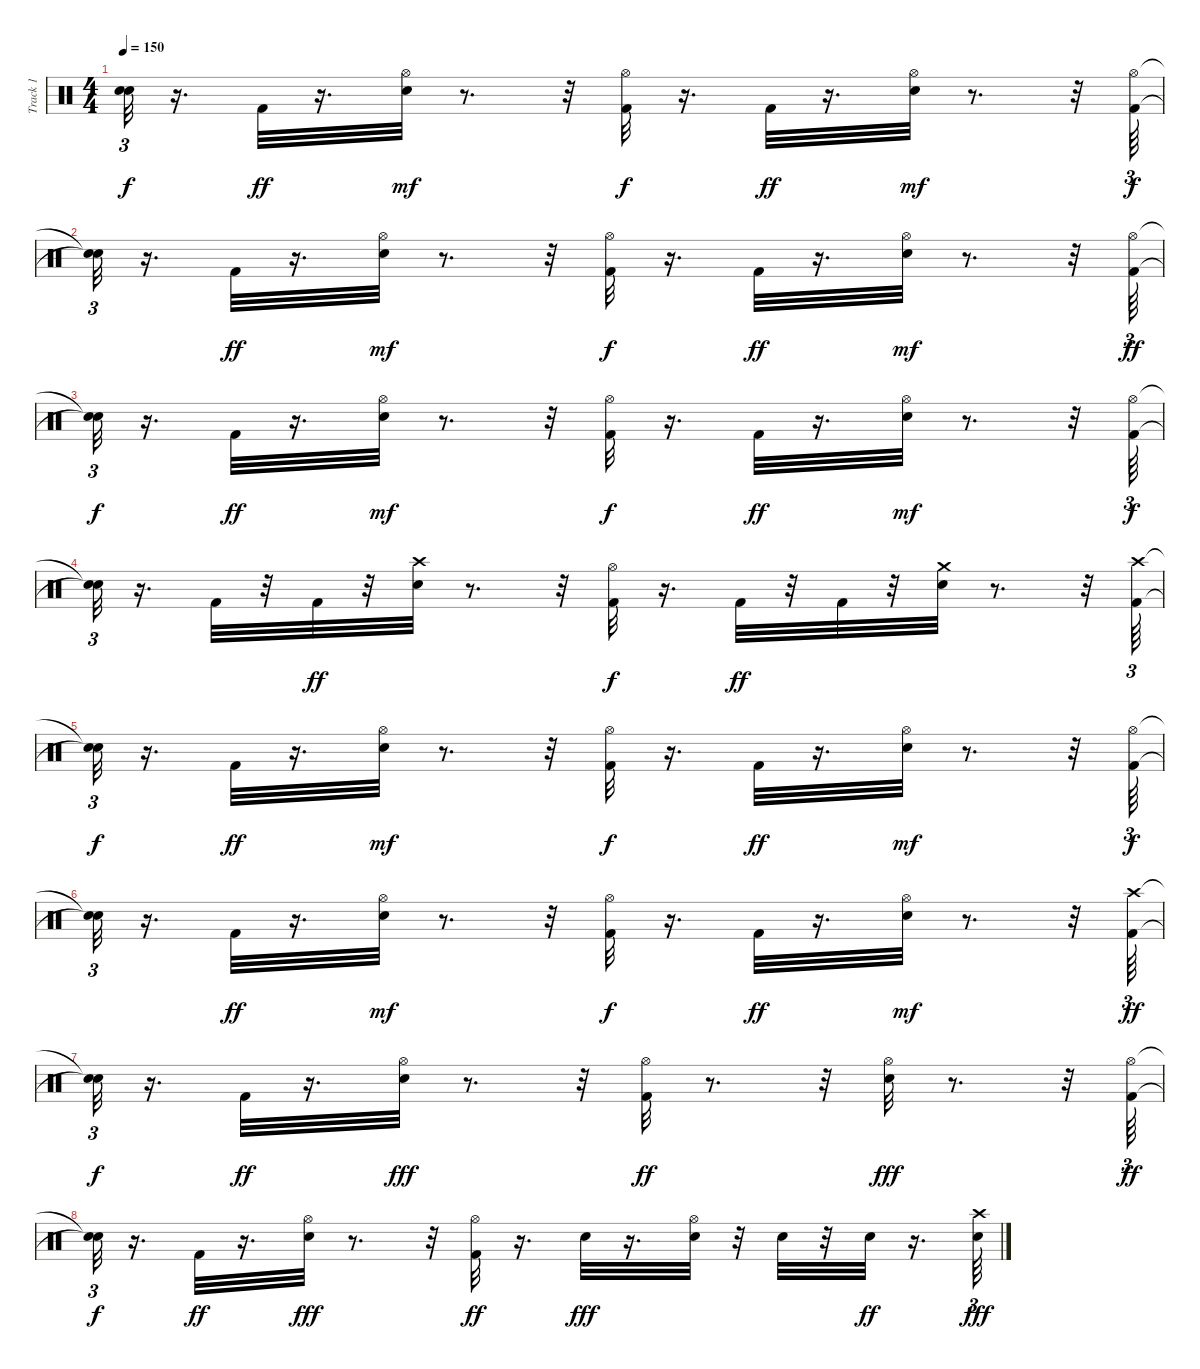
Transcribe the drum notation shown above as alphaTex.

\track ("Track 1" "Track 1") {instrument percussion}
\staff {score}
\articulation defaults
\ts (4 4)
\tempo 150
\clef neutral
\ks c
("Snare (hit)"{t} "Snare (hit)"{t}).32{tu (3 2) dy f} r.16{d} "Kick (hit) 2".32{dy ff} r.16{d} ("Electric Snare (hit)" "Hi-Hat (open)").32{dy mf} r.8{d} r.32 ("Hi-Hat (open)" "Kick (hit) 2").32{dy f} r.16{d} "Kick (hit) 2".32{dy ff} r.16{d} ("Electric Snare (hit)" "Hi-Hat (open)").32{dy mf} r.8{d} r.32 ("Hi-Hat (open)" "Kick (hit) 2").64{tu (3 2) dy f} |
("Snare (hit)"{t} "Snare (hit)"{t}).32{tu (3 2)} r.16{d} "Kick (hit) 2".32{dy ff} r.16{d} ("Electric Snare (hit)" "Hi-Hat (open)").32{dy mf} r.8{d} r.32 ("Kick (hit) 2" "Hi-Hat (open)").32{dy f} r.16{d} "Kick (hit) 2".32{dy ff} r.16{d} ("Electric Snare (hit)" "Hi-Hat (open)").32{dy mf} r.8{d} r.32 ("Kick (hit) 2" "Hi-Hat (open)").64{tu (3 2) dy ff} |
("Snare (hit)"{t} "Snare (hit)"{t}).32{tu (3 2) dy f} r.16{d} "Kick (hit) 2".32{dy ff} r.16{d} ("Electric Snare (hit)" "Hi-Hat (open)").32{dy mf} r.8{d} r.32 ("Hi-Hat (open)" "Kick (hit) 2").32{dy f} r.16{d} "Kick (hit) 2".32{dy ff} r.16{d} ("Electric Snare (hit)" "Hi-Hat (open)").32{dy mf} r.8{d} r.32 ("Hi-Hat (open)" "Kick (hit) 2").64{tu (3 2) dy f} |
("Snare (hit)"{t} "Snare (hit)"{t}).32{tu (3 2)} r.16{d} "Kick (hit) 2".32 r.32 "Kick (hit) 2".32{dy ff} r.32 ("Electric Snare (hit)" "Crash high (hit)").32 r.8{d} r.32 ("Kick (hit) 2" "Hi-Hat (open)").32{dy f} r.16{d} "Kick (hit) 2".32{dy ff} r.32 "Kick (hit) 2".32 r.32 ("Electric Snare (hit)" "Crash medium (hit)").32 r.8{d} r.32 ("Kick (hit) 2" "Crash high (hit)").64{tu (3 2)} |
("Snare (hit)"{t} "Snare (hit)"{t}).32{tu (3 2) dy f} r.16{d} "Kick (hit) 2".32{dy ff} r.16{d} ("Electric Snare (hit)" "Hi-Hat (open)").32{dy mf} r.8{d} r.32 ("Hi-Hat (open)" "Kick (hit) 2").32{dy f} r.16{d} "Kick (hit) 2".32{dy ff} r.16{d} ("Electric Snare (hit)" "Hi-Hat (open)").32{dy mf} r.8{d} r.32 ("Hi-Hat (open)" "Kick (hit) 2").64{tu (3 2) dy f} |
("Snare (hit)"{t} "Snare (hit)"{t}).32{tu (3 2)} r.16{d} "Kick (hit) 2".32{dy ff} r.16{d} ("Electric Snare (hit)" "Hi-Hat (open)").32{dy mf} r.8{d} r.32 ("Kick (hit) 2" "Hi-Hat (open)").32{dy f} r.16{d} "Kick (hit) 2".32{dy ff} r.16{d} ("Electric Snare (hit)" "Hi-Hat (open)").32{dy mf} r.8{d} r.32 ("Crash high (hit)" "Kick (hit) 2").64{tu (3 2) dy ff} |
("Snare (hit)"{t} "Snare (hit)"{t}).32{tu (3 2) dy f} r.16{d} "Kick (hit) 2".32{dy ff} r.16{d} ("Electric Snare (hit)" "Hi-Hat (open)").32{dy fff} r.8{d} r.32 ("Hi-Hat (open)" "Kick (hit) 2").32{dy ff} r.8{d} r.32 ("Hi-Hat (open)" "Electric Snare (hit)").32{dy fff} r.8{d} r.32 ("Hi-Hat (open)" "Kick (hit) 2").64{tu (3 2) dy ff} |
("Snare (hit)"{t} "Snare (hit)"{t}).32{tu (3 2) dy f} r.16{d} "Kick (hit) 2".32{dy ff} r.16{d} ("Hi-Hat (open)" "Electric Snare (hit)").32{dy fff} r.8{d} r.32 ("Kick (hit) 2" "Hi-Hat (open)").32{dy ff} r.16{d} "Electric Snare (hit)".32{dy fff} r.16{d} ("Electric Snare (hit)" "Hi-Hat (open)").32 r.32 "Snare (hit) 2".32 r.32 "Electric Snare (hit)".32{dy ff} r.16{d} ("Crash high (hit)" "Snare (hit) 2").64{tu (3 2) dy fff}
